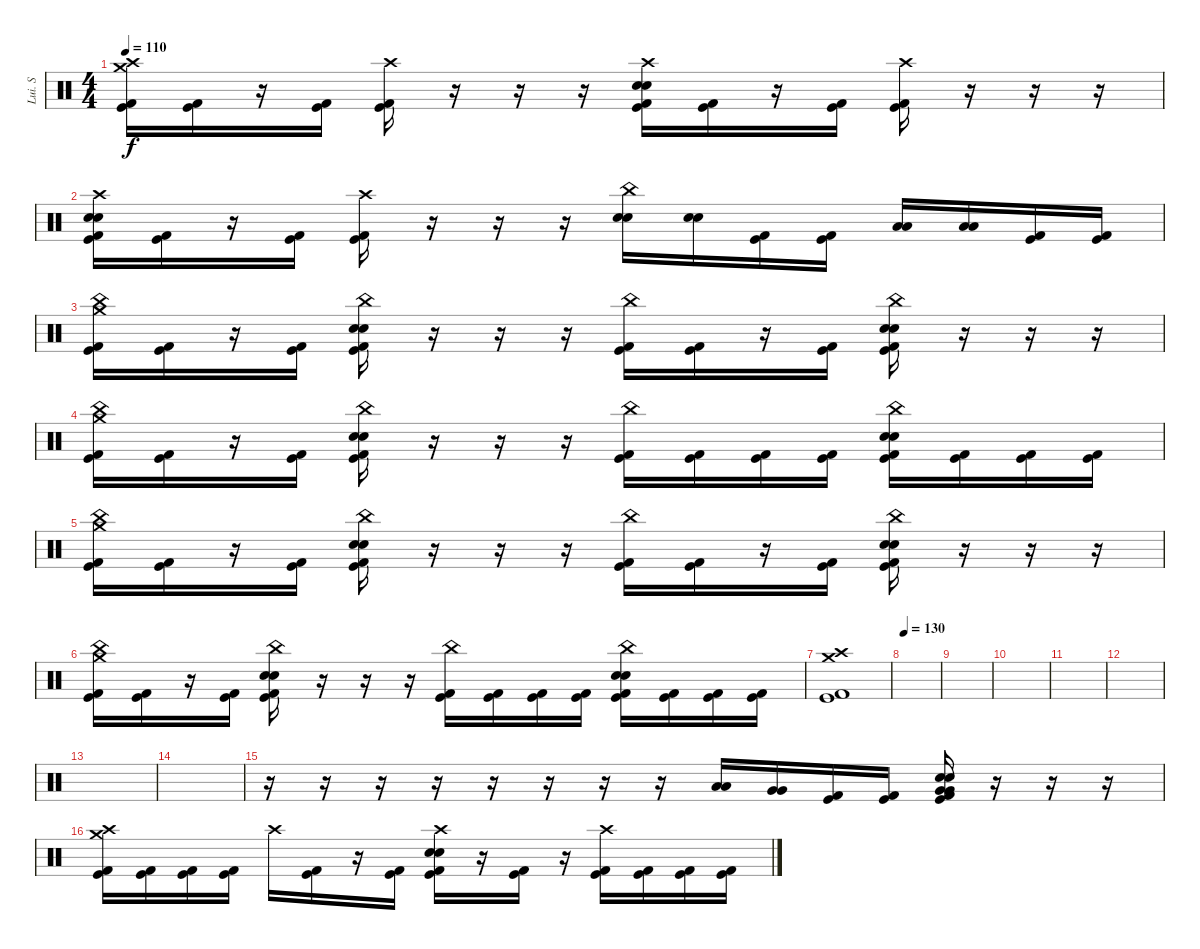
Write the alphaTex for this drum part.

\track ("Lui. S" "Lui. S") {instrument percussion}
\staff {score}
\articulation defaults
\ts (4 4)
\tempo 110
\clef neutral
\ks c
("Crash high (hit)" "Crash medium (hit)" "Kick (hit) 2" "Kick (hit)").16{dy f} ("Kick (hit) 2" "Kick (hit)").16 r.16 ("Kick (hit) 2" "Kick (hit)").16 ("Crash high (hit)" "Kick (hit) 2" "Kick (hit)").16 r.16 r.16 r.16 ("Crash high (hit)" "Electric Snare (hit)" "Snare (hit) 2" "Kick (hit) 2" "Kick (hit)").16 ("Kick (hit) 2" "Kick (hit)").16 r.16 ("Kick (hit) 2" "Kick (hit)").16 ("Crash high (hit)" "Kick (hit) 2" "Kick (hit)").16 r.16 r.16 r.16 |
("Crash high (hit)" "Electric Snare (hit)" "Snare (hit) 2" "Kick (hit) 2" "Kick (hit)").16 ("Kick (hit) 2" "Kick (hit)").16 r.16 ("Kick (hit) 2" "Kick (hit)").16 ("Crash high (hit)" "Kick (hit) 2" "Kick (hit)").16 r.16 r.16 r.16 ("China (hit)" "Electric Snare (hit)" "Snare (hit) 2").16 ("Electric Snare (hit)" "Snare (hit) 2").16 ("Kick (hit) 2" "Kick (hit)").16 ("Kick (hit) 2" "Kick (hit)").16 ("Low Tom (hit)" "Low Tom (hit)").16 ("Low Tom (hit)" "Low Tom (hit)").16 ("Kick (hit) 2" "Kick (hit)").16 ("Kick (hit) 2" "Kick (hit)").16 |
("China (hit)" "Crash medium (hit)" "Kick (hit) 2" "Kick (hit)").16 ("Kick (hit) 2" "Kick (hit)").16 r.16 ("Kick (hit) 2" "Kick (hit)").16 ("China (hit)" "Electric Snare (hit)" "Snare (hit) 2" "Kick (hit) 2" "Kick (hit)").16 r.16 r.16 r.16 ("China (hit)" "Kick (hit) 2" "Kick (hit)").16 ("Kick (hit) 2" "Kick (hit)").16 r.16 ("Kick (hit) 2" "Kick (hit)").16 ("China (hit)" "Electric Snare (hit)" "Snare (hit) 2" "Kick (hit) 2" "Kick (hit)").16 r.16 r.16 r.16 |
("China (hit)" "Crash medium (hit)" "Kick (hit) 2" "Kick (hit)").16 ("Kick (hit) 2" "Kick (hit)").16 r.16 ("Kick (hit) 2" "Kick (hit)").16 ("China (hit)" "Electric Snare (hit)" "Snare (hit) 2" "Kick (hit) 2" "Kick (hit)").16 r.16 r.16 r.16 ("China (hit)" "Kick (hit) 2" "Kick (hit)").16 ("Kick (hit) 2" "Kick (hit)").16 ("Kick (hit) 2" "Kick (hit)").16 ("Kick (hit) 2" "Kick (hit)").16 ("China (hit)" "Electric Snare (hit)" "Snare (hit) 2" "Kick (hit) 2" "Kick (hit)").16 ("Kick (hit)" "Kick (hit) 2").16 ("Kick (hit)" "Kick (hit) 2").16 ("Kick (hit)" "Kick (hit) 2").16 |
("China (hit)" "Crash medium (hit)" "Kick (hit) 2" "Kick (hit)").16 ("Kick (hit) 2" "Kick (hit)").16 r.16 ("Kick (hit) 2" "Kick (hit)").16 ("China (hit)" "Electric Snare (hit)" "Snare (hit) 2" "Kick (hit) 2" "Kick (hit)").16 r.16 r.16 r.16 ("China (hit)" "Kick (hit) 2" "Kick (hit)").16 ("Kick (hit) 2" "Kick (hit)").16 r.16 ("Kick (hit) 2" "Kick (hit)").16 ("China (hit)" "Electric Snare (hit)" "Snare (hit) 2" "Kick (hit) 2" "Kick (hit)").16 r.16 r.16 r.16 |
("China (hit)" "Crash medium (hit)" "Kick (hit) 2" "Kick (hit)").16 ("Kick (hit) 2" "Kick (hit)").16 r.16 ("Kick (hit) 2" "Kick (hit)").16 ("China (hit)" "Electric Snare (hit)" "Snare (hit) 2" "Kick (hit) 2" "Kick (hit)").16 r.16 r.16 r.16 ("China (hit)" "Kick (hit) 2" "Kick (hit)").16 ("Kick (hit) 2" "Kick (hit)").16 ("Kick (hit) 2" "Kick (hit)").16 ("Kick (hit) 2" "Kick (hit)").16 ("China (hit)" "Electric Snare (hit)" "Snare (hit) 2" "Kick (hit) 2" "Kick (hit)").16 ("Kick (hit)" "Kick (hit) 2").16 ("Kick (hit)" "Kick (hit) 2").16 ("Kick (hit)" "Kick (hit) 2").16 |
("Crash high (hit)" "Crash medium (hit)" "Kick (hit)" "Kick (hit) 2").1 |
\tempo 130
|
|
|
|
|
|
|
r.16 r.16 r.16 r.16 r.16 r.16 r.16 r.16 ("Low Tom (hit)" "Low Tom (hit)").16 ("Very Low Tom (hit)" "Very Low Tom (hit)").16 ("Kick (hit) 2" "Kick (hit)").16 ("Kick (hit) 2" "Kick (hit)").16 ("Very Low Tom (hit)" "Very Low Tom (hit)" "Snare (hit) 2" "Electric Snare (hit)" "Kick (hit) 2" "Kick (hit)").16 r.16 r.16 r.16 |
("Crash medium (hit)" "Crash high (hit)" "Kick (hit) 2" "Kick (hit)").16 ("Kick (hit) 2" "Kick (hit)").16 ("Kick (hit) 2" "Kick (hit)").16 ("Kick (hit) 2" "Kick (hit)").16 "Crash high (hit)".16 ("Kick (hit) 2" "Kick (hit)").16 r.16 ("Kick (hit) 2" "Kick (hit)").16 ("Crash high (hit)" "Electric Snare (hit)" "Snare (hit) 2" "Kick (hit) 2" "Kick (hit)").16 r.16 ("Kick (hit) 2" "Kick (hit)").16 r.16 ("Crash high (hit)" "Kick (hit) 2" "Kick (hit)").16 ("Kick (hit) 2" "Kick (hit)").16 ("Kick (hit) 2" "Kick (hit)").16 ("Kick (hit) 2" "Kick (hit)").16
